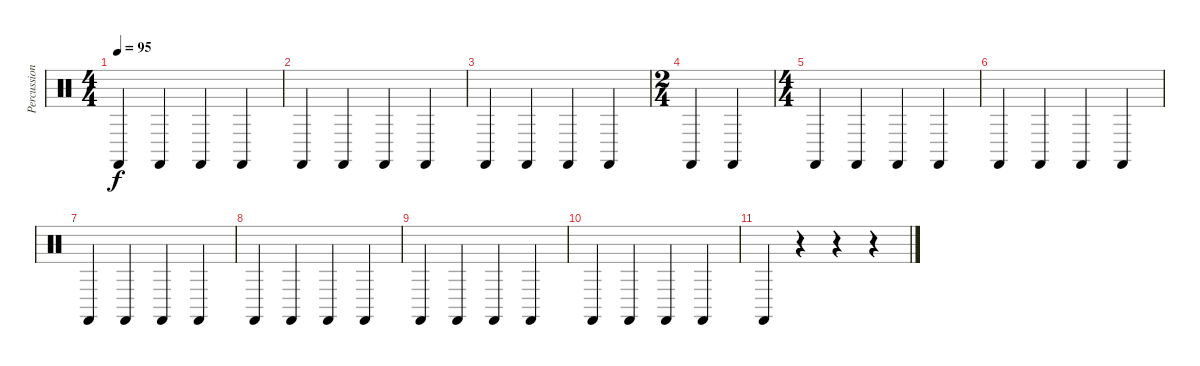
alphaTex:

\track ("Percussions" "Percussion") {instrument percussion}
\staff {score}
\articulation defaults
\ts (4 4)
\tempo 95
\clef neutral
\ks c "Castanets (hit)".4{dy f} "Castanets (hit)".4 "Castanets (hit)".4 "Castanets (hit)".4
|
"Castanets (hit)".4 "Castanets (hit)".4 "Castanets (hit)".4 "Castanets (hit)".4 |
"Castanets (hit)".4 "Castanets (hit)".4 "Castanets (hit)".4 "Castanets (hit)".4 |
\ts (2 4)
"Castanets (hit)".4 "Castanets (hit)".4 |
\ts (4 4)
"Castanets (hit)".4 "Castanets (hit)".4 "Castanets (hit)".4 "Castanets (hit)".4 |
"Castanets (hit)".4 "Castanets (hit)".4 "Castanets (hit)".4 "Castanets (hit)".4 |
"Castanets (hit)".4 "Castanets (hit)".4 "Castanets (hit)".4 "Castanets (hit)".4 |
"Castanets (hit)".4 "Castanets (hit)".4 "Castanets (hit)".4 "Castanets (hit)".4 |
"Castanets (hit)".4 "Castanets (hit)".4 "Castanets (hit)".4 "Castanets (hit)".4 |
"Castanets (hit)".4 "Castanets (hit)".4 "Castanets (hit)".4 "Castanets (hit)".4 |
"Castanets (hit)".4 r.4 r.4 r.4
